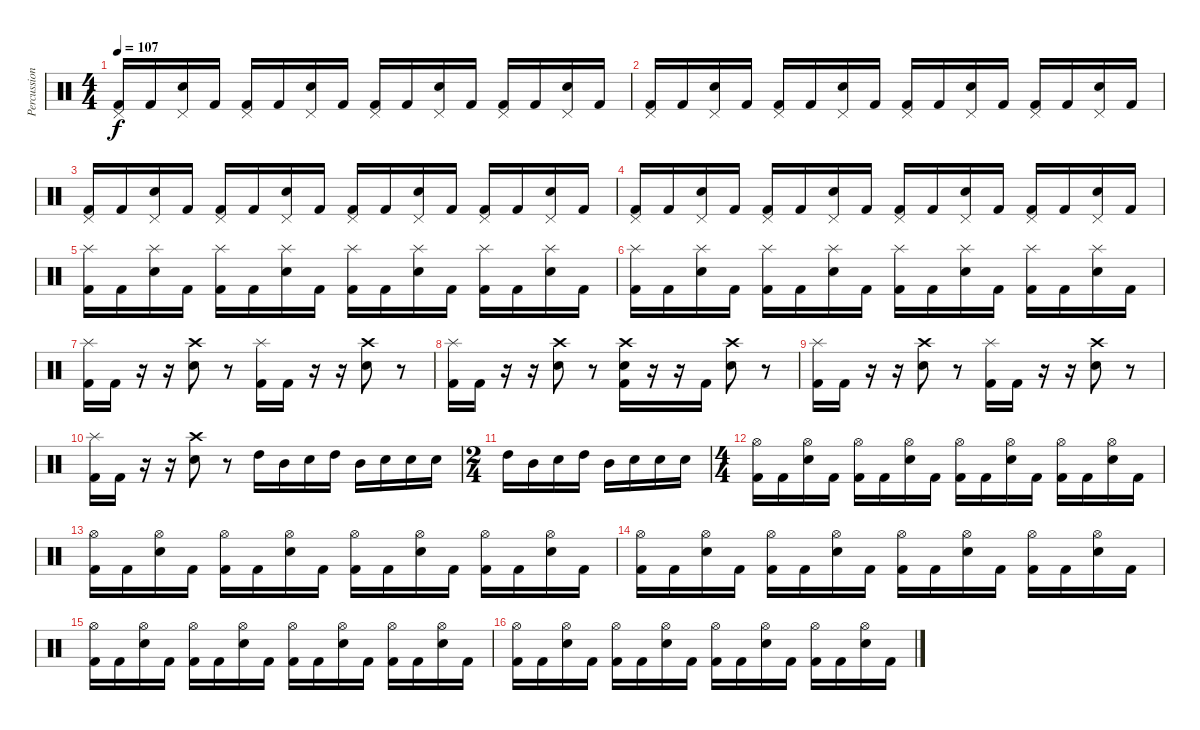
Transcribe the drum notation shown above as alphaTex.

\track ("Percussion" "Percussion") {instrument percussion}
\staff {score}
\articulation defaults
\ts (4 4)
\tempo 107
\clef neutral
\ks c
("Pedal Hi-Hat (hit)" "Kick (hit) 2").16{dy f} "Kick (hit) 2".16 ("Pedal Hi-Hat (hit)" "Electric Snare (hit)").16 "Kick (hit) 2".16 ("Pedal Hi-Hat (hit)" "Kick (hit) 2").16 "Kick (hit) 2".16 ("Pedal Hi-Hat (hit)" "Electric Snare (hit)").16 "Kick (hit) 2".16 ("Pedal Hi-Hat (hit)" "Kick (hit) 2").16 "Kick (hit) 2".16 ("Pedal Hi-Hat (hit)" "Electric Snare (hit)").16 "Kick (hit) 2".16 ("Pedal Hi-Hat (hit)" "Kick (hit) 2").16 "Kick (hit) 2".16 ("Pedal Hi-Hat (hit)" "Electric Snare (hit)").16 "Kick (hit) 2".16 |
("Pedal Hi-Hat (hit)" "Kick (hit) 2").16 "Kick (hit) 2".16 ("Pedal Hi-Hat (hit)" "Electric Snare (hit)").16 "Kick (hit) 2".16 ("Pedal Hi-Hat (hit)" "Kick (hit) 2").16 "Kick (hit) 2".16 ("Pedal Hi-Hat (hit)" "Electric Snare (hit)").16 "Kick (hit) 2".16 ("Pedal Hi-Hat (hit)" "Kick (hit) 2").16 "Kick (hit) 2".16 ("Pedal Hi-Hat (hit)" "Electric Snare (hit)").16 "Kick (hit) 2".16 ("Pedal Hi-Hat (hit)" "Kick (hit) 2").16 "Kick (hit) 2".16 ("Pedal Hi-Hat (hit)" "Electric Snare (hit)").16 "Kick (hit) 2".16 |
("Pedal Hi-Hat (hit)" "Kick (hit) 2").16 "Kick (hit) 2".16 ("Pedal Hi-Hat (hit)" "Electric Snare (hit)").16 "Kick (hit) 2".16 ("Pedal Hi-Hat (hit)" "Kick (hit) 2").16 "Kick (hit) 2".16 ("Pedal Hi-Hat (hit)" "Electric Snare (hit)").16 "Kick (hit) 2".16 ("Pedal Hi-Hat (hit)" "Kick (hit) 2").16 "Kick (hit) 2".16 ("Pedal Hi-Hat (hit)" "Electric Snare (hit)").16 "Kick (hit) 2".16 ("Pedal Hi-Hat (hit)" "Kick (hit) 2").16 "Kick (hit) 2".16 ("Pedal Hi-Hat (hit)" "Electric Snare (hit)").16 "Kick (hit) 2".16 |
("Pedal Hi-Hat (hit)" "Kick (hit) 2").16 "Kick (hit) 2".16 ("Pedal Hi-Hat (hit)" "Electric Snare (hit)").16 "Kick (hit) 2".16 ("Pedal Hi-Hat (hit)" "Kick (hit) 2").16 "Kick (hit) 2".16 ("Pedal Hi-Hat (hit)" "Electric Snare (hit)").16 "Kick (hit) 2".16 ("Pedal Hi-Hat (hit)" "Kick (hit) 2").16 "Kick (hit) 2".16 ("Pedal Hi-Hat (hit)" "Electric Snare (hit)").16 "Kick (hit) 2".16 ("Pedal Hi-Hat (hit)" "Kick (hit) 2").16 "Kick (hit) 2".16 ("Pedal Hi-Hat (hit)" "Electric Snare (hit)").16 "Kick (hit) 2".16 |
("Splash (hit)" "Kick (hit) 2").16 "Kick (hit) 2".16 ("Splash (hit)" "Electric Snare (hit)").16 "Kick (hit) 2".16 ("Splash (hit)" "Kick (hit) 2").16 "Kick (hit) 2".16 ("Splash (hit)" "Electric Snare (hit)").16 "Kick (hit) 2".16 ("Splash (hit)" "Kick (hit) 2").16 "Kick (hit) 2".16 ("Splash (hit)" "Electric Snare (hit)").16 "Kick (hit) 2".16 ("Splash (hit)" "Kick (hit) 2").16 "Kick (hit) 2".16 ("Splash (hit)" "Electric Snare (hit)").16 "Kick (hit) 2".16 |
("Splash (hit)" "Kick (hit) 2").16 "Kick (hit) 2".16 ("Splash (hit)" "Electric Snare (hit)").16 "Kick (hit) 2".16 ("Splash (hit)" "Kick (hit) 2").16 "Kick (hit) 2".16 ("Splash (hit)" "Electric Snare (hit)").16 "Kick (hit) 2".16 ("Splash (hit)" "Kick (hit) 2").16 "Kick (hit) 2".16 ("Splash (hit)" "Electric Snare (hit)").16 "Kick (hit) 2".16 ("Splash (hit)" "Kick (hit) 2").16 "Kick (hit) 2".16 ("Splash (hit)" "Electric Snare (hit)").16 "Kick (hit) 2".16 |
("Splash (hit)" "Kick (hit) 2").16 "Kick (hit) 2".16 r.16 r.16 ("Crash high (hit)" "Electric Snare (hit)").8 r.8 ("Splash (hit)" "Kick (hit) 2").16 "Kick (hit) 2".16 r.16 r.16 ("Crash high (hit)" "Electric Snare (hit)").8 r.8 |
("Splash (hit)" "Kick (hit) 2").16 "Kick (hit) 2".16 r.16 r.16 ("Crash high (hit)" "Electric Snare (hit)").8 r.8 ("Crash high (hit)" "Electric Snare (hit)" "Kick (hit) 2").16 r.16 r.16 "Kick (hit) 2".16 ("Crash high (hit)" "Electric Snare (hit)").8 r.8 |
("Splash (hit)" "Kick (hit) 2").16 "Kick (hit) 2".16 r.16 r.16 ("Crash high (hit)" "Electric Snare (hit)").8 r.8 ("Splash (hit)" "Kick (hit) 2").16 "Kick (hit) 2".16 r.16 r.16 ("Crash high (hit)" "Electric Snare (hit)").8 r.8 |
("Splash (hit)" "Kick (hit) 2").16 "Kick (hit) 2".16 r.16 r.16 ("Crash high (hit)" "Electric Snare (hit)").8 r.8 "High Tom (hit)".16 "Mid Tom (hit)".16 "Electric Snare (hit)".16 "High Tom (hit)".16 "Mid Tom (hit)".16 "Electric Snare (hit)".16 "Electric Snare (hit)".16 "Electric Snare (hit)".16 |
\ts (2 4)
"High Tom (hit)".16 "Mid Tom (hit)".16 "Electric Snare (hit)".16 "High Tom (hit)".16 "Mid Tom (hit)".16 "Electric Snare (hit)".16 "Electric Snare (hit)".16 "Electric Snare (hit)".16 |
\ts (4 4)
("Hi-Hat (open)" "Kick (hit) 2").16 "Kick (hit) 2".16 ("Hi-Hat (open)" "Electric Snare (hit)").16 "Kick (hit) 2".16 ("Hi-Hat (open)" "Kick (hit) 2").16 "Kick (hit) 2".16 ("Hi-Hat (open)" "Electric Snare (hit)").16 "Kick (hit) 2".16 ("Hi-Hat (open)" "Kick (hit) 2").16 "Kick (hit) 2".16 ("Hi-Hat (open)" "Electric Snare (hit)").16 "Kick (hit) 2".16 ("Hi-Hat (open)" "Kick (hit) 2").16 "Kick (hit) 2".16 ("Hi-Hat (open)" "Electric Snare (hit)").16 "Kick (hit) 2".16 |
("Hi-Hat (open)" "Kick (hit) 2").16 "Kick (hit) 2".16 ("Hi-Hat (open)" "Electric Snare (hit)").16 "Kick (hit) 2".16 ("Hi-Hat (open)" "Kick (hit) 2").16 "Kick (hit) 2".16 ("Hi-Hat (open)" "Electric Snare (hit)").16 "Kick (hit) 2".16 ("Hi-Hat (open)" "Kick (hit) 2").16 "Kick (hit) 2".16 ("Hi-Hat (open)" "Electric Snare (hit)").16 "Kick (hit) 2".16 ("Hi-Hat (open)" "Kick (hit) 2").16 "Kick (hit) 2".16 ("Hi-Hat (open)" "Electric Snare (hit)").16 "Kick (hit) 2".16 |
("Hi-Hat (open)" "Kick (hit) 2").16 "Kick (hit) 2".16 ("Hi-Hat (open)" "Electric Snare (hit)").16 "Kick (hit) 2".16 ("Hi-Hat (open)" "Kick (hit) 2").16 "Kick (hit) 2".16 ("Hi-Hat (open)" "Electric Snare (hit)").16 "Kick (hit) 2".16 ("Hi-Hat (open)" "Kick (hit) 2").16 "Kick (hit) 2".16 ("Hi-Hat (open)" "Electric Snare (hit)").16 "Kick (hit) 2".16 ("Hi-Hat (open)" "Kick (hit) 2").16 "Kick (hit) 2".16 ("Hi-Hat (open)" "Electric Snare (hit)").16 "Kick (hit) 2".16 |
("Hi-Hat (open)" "Kick (hit) 2").16 "Kick (hit) 2".16 ("Hi-Hat (open)" "Electric Snare (hit)").16 "Kick (hit) 2".16 ("Hi-Hat (open)" "Kick (hit) 2").16 "Kick (hit) 2".16 ("Hi-Hat (open)" "Electric Snare (hit)").16 "Kick (hit) 2".16 ("Hi-Hat (open)" "Kick (hit) 2").16 "Kick (hit) 2".16 ("Hi-Hat (open)" "Electric Snare (hit)").16 "Kick (hit) 2".16 ("Hi-Hat (open)" "Kick (hit) 2").16 "Kick (hit) 2".16 ("Hi-Hat (open)" "Electric Snare (hit)").16 "Kick (hit) 2".16 |
("Hi-Hat (open)" "Kick (hit) 2").16 "Kick (hit) 2".16 ("Hi-Hat (open)" "Electric Snare (hit)").16 "Kick (hit) 2".16 ("Hi-Hat (open)" "Kick (hit) 2").16 "Kick (hit) 2".16 ("Hi-Hat (open)" "Electric Snare (hit)").16 "Kick (hit) 2".16 ("Hi-Hat (open)" "Kick (hit) 2").16 "Kick (hit) 2".16 ("Hi-Hat (open)" "Electric Snare (hit)").16 "Kick (hit) 2".16 ("Hi-Hat (open)" "Kick (hit) 2").16 "Kick (hit) 2".16 ("Hi-Hat (open)" "Electric Snare (hit)").16 "Kick (hit) 2".16
